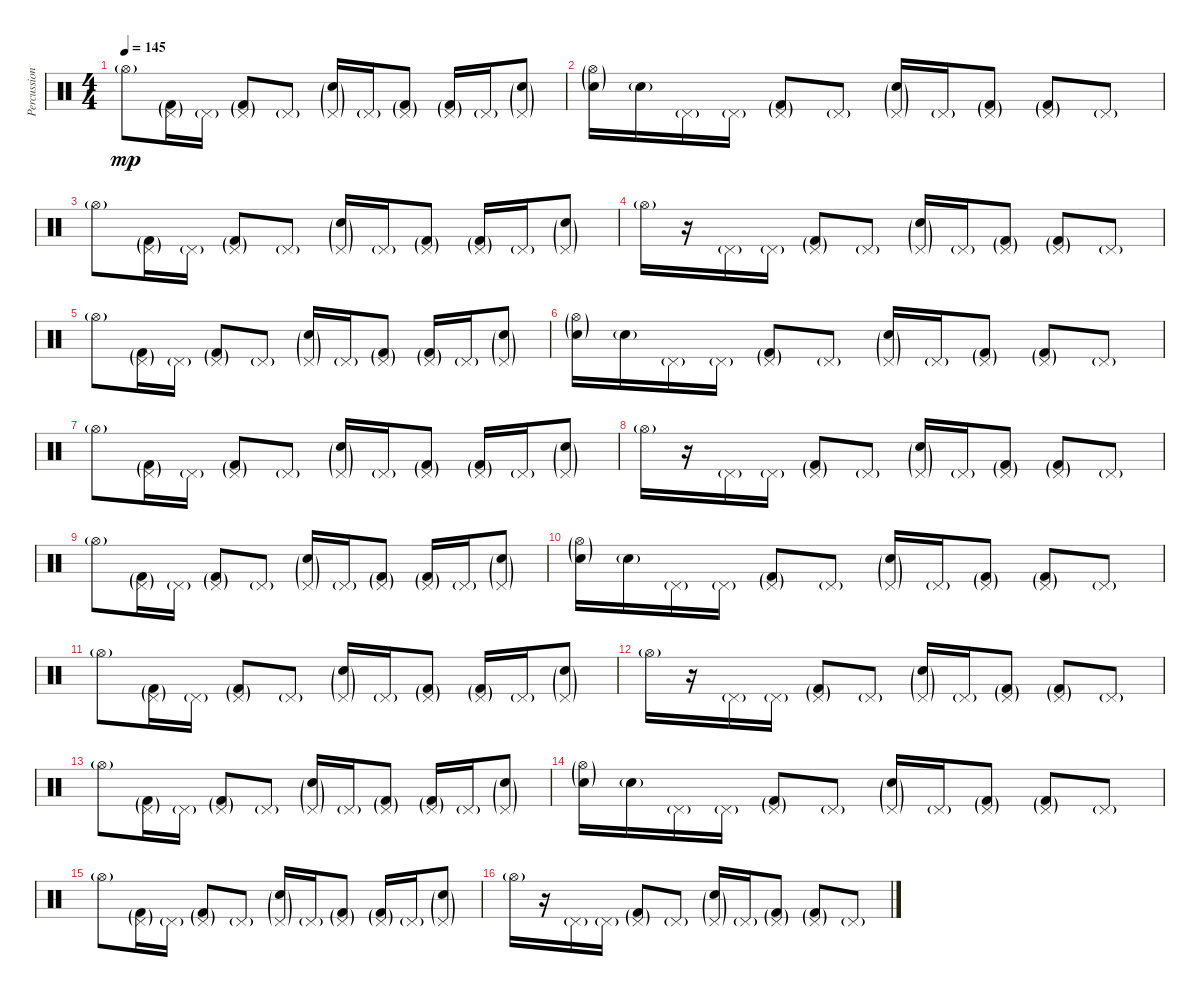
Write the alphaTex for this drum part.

\track ("Percussion" "Percussion") {instrument percussion}
\staff {score}
\articulation defaults
\ts (4 4)
\tempo 145
\clef neutral
\ks c "Hi-Hat (open)"{g}.8{dy mp}
("Pedal Hi-Hat (hit)"{g} "Kick (hit) 2"{g}).16 "Pedal Hi-Hat (hit)"{g}.16 ("Pedal Hi-Hat (hit)"{g} "Kick (hit) 2"{g}).8 "Pedal Hi-Hat (hit)"{g}.8 ("Pedal Hi-Hat (hit)"{g} "Snare (hit) 2"{g}).16 "Pedal Hi-Hat (hit)"{g}.16 ("Pedal Hi-Hat (hit)"{g} "Kick (hit) 2"{g}).8 ("Pedal Hi-Hat (hit)"{g} "Kick (hit) 2"{g}).16 "Pedal Hi-Hat (hit)"{g}.16 ("Pedal Hi-Hat (hit)"{g} "Snare (hit) 2"{g}).8 |
("Hi-Hat (open)"{g} "Snare (hit) 2"{g}).16 "Snare (hit) 2"{g}.16 "Pedal Hi-Hat (hit)"{g}.16 "Pedal Hi-Hat (hit)"{g}.16 ("Pedal Hi-Hat (hit)"{g} "Kick (hit) 2"{g}).8 "Pedal Hi-Hat (hit)"{g}.8 ("Pedal Hi-Hat (hit)"{g} "Snare (hit) 2"{g}).16 "Pedal Hi-Hat (hit)"{g}.16 ("Pedal Hi-Hat (hit)"{g} "Kick (hit) 2"{g}).8 ("Pedal Hi-Hat (hit)"{g} "Kick (hit) 2"{g}).8 "Pedal Hi-Hat (hit)"{g}.8 |
"Hi-Hat (open)"{g}.8 ("Pedal Hi-Hat (hit)"{g} "Kick (hit) 2"{g}).16 "Pedal Hi-Hat (hit)"{g}.16 ("Pedal Hi-Hat (hit)"{g} "Kick (hit) 2"{g}).8 "Pedal Hi-Hat (hit)"{g}.8 ("Pedal Hi-Hat (hit)"{g} "Snare (hit) 2"{g}).16 "Pedal Hi-Hat (hit)"{g}.16 ("Pedal Hi-Hat (hit)"{g} "Kick (hit) 2"{g}).8 ("Pedal Hi-Hat (hit)"{g} "Kick (hit) 2"{g}).16 "Pedal Hi-Hat (hit)"{g}.16 ("Pedal Hi-Hat (hit)"{g} "Snare (hit) 2"{g}).8 |
"Hi-Hat (open)"{g}.16 r.16 "Pedal Hi-Hat (hit)"{g}.16 "Pedal Hi-Hat (hit)"{g}.16 ("Pedal Hi-Hat (hit)"{g} "Kick (hit) 2"{g}).8 "Pedal Hi-Hat (hit)"{g}.8 ("Pedal Hi-Hat (hit)"{g} "Snare (hit) 2"{g}).16 "Pedal Hi-Hat (hit)"{g}.16 ("Pedal Hi-Hat (hit)"{g} "Kick (hit) 2"{g}).8 ("Pedal Hi-Hat (hit)"{g} "Kick (hit) 2"{g}).8 "Pedal Hi-Hat (hit)"{g}.8 |
"Hi-Hat (open)"{g}.8 ("Pedal Hi-Hat (hit)"{g} "Kick (hit) 2"{g}).16 "Pedal Hi-Hat (hit)"{g}.16 ("Pedal Hi-Hat (hit)"{g} "Kick (hit) 2"{g}).8 "Pedal Hi-Hat (hit)"{g}.8 ("Pedal Hi-Hat (hit)"{g} "Snare (hit) 2"{g}).16 "Pedal Hi-Hat (hit)"{g}.16 ("Pedal Hi-Hat (hit)"{g} "Kick (hit) 2"{g}).8 ("Pedal Hi-Hat (hit)"{g} "Kick (hit) 2"{g}).16 "Pedal Hi-Hat (hit)"{g}.16 ("Pedal Hi-Hat (hit)"{g} "Snare (hit) 2"{g}).8 |
("Hi-Hat (open)"{g} "Snare (hit) 2"{g}).16{volume 8} "Snare (hit) 2"{g}.16 "Pedal Hi-Hat (hit)"{g}.16 "Pedal Hi-Hat (hit)"{g}.16 ("Pedal Hi-Hat (hit)"{g} "Kick (hit) 2"{g}).8 "Pedal Hi-Hat (hit)"{g}.8 ("Pedal Hi-Hat (hit)"{g} "Snare (hit) 2"{g}).16 "Pedal Hi-Hat (hit)"{g}.16 ("Pedal Hi-Hat (hit)"{g} "Kick (hit) 2"{g}).8 ("Pedal Hi-Hat (hit)"{g} "Kick (hit) 2"{g}).8 "Pedal Hi-Hat (hit)"{g}.8 |
"Hi-Hat (open)"{g}.8 ("Pedal Hi-Hat (hit)"{g} "Kick (hit) 2"{g}).16 "Pedal Hi-Hat (hit)"{g}.16 ("Pedal Hi-Hat (hit)"{g} "Kick (hit) 2"{g}).8 "Pedal Hi-Hat (hit)"{g}.8 ("Pedal Hi-Hat (hit)"{g} "Snare (hit) 2"{g}).16 "Pedal Hi-Hat (hit)"{g}.16 ("Pedal Hi-Hat (hit)"{g} "Kick (hit) 2"{g}).8 ("Pedal Hi-Hat (hit)"{g} "Kick (hit) 2"{g}).16 "Pedal Hi-Hat (hit)"{g}.16 ("Pedal Hi-Hat (hit)"{g} "Snare (hit) 2"{g}).8 |
"Hi-Hat (open)"{g}.16 r.16 "Pedal Hi-Hat (hit)"{g}.16 "Pedal Hi-Hat (hit)"{g}.16 ("Pedal Hi-Hat (hit)"{g} "Kick (hit) 2"{g}).8 "Pedal Hi-Hat (hit)"{g}.8 ("Pedal Hi-Hat (hit)"{g} "Snare (hit) 2"{g}).16 "Pedal Hi-Hat (hit)"{g}.16 ("Pedal Hi-Hat (hit)"{g} "Kick (hit) 2"{g}).8 ("Pedal Hi-Hat (hit)"{g} "Kick (hit) 2"{g}).8 "Pedal Hi-Hat (hit)"{g}.8 |
"Hi-Hat (open)"{g}.8 ("Pedal Hi-Hat (hit)"{g} "Kick (hit) 2"{g}).16 "Pedal Hi-Hat (hit)"{g}.16 ("Pedal Hi-Hat (hit)"{g} "Kick (hit) 2"{g}).8 "Pedal Hi-Hat (hit)"{g}.8 ("Pedal Hi-Hat (hit)"{g} "Snare (hit) 2"{g}).16 "Pedal Hi-Hat (hit)"{g}.16 ("Pedal Hi-Hat (hit)"{g} "Kick (hit) 2"{g}).8 ("Pedal Hi-Hat (hit)"{g} "Kick (hit) 2"{g}).16 "Pedal Hi-Hat (hit)"{g}.16 ("Pedal Hi-Hat (hit)"{g} "Snare (hit) 2"{g}).8 |
("Hi-Hat (open)"{g} "Snare (hit) 2"{g}).16{volume 6} "Snare (hit) 2"{g}.16 "Pedal Hi-Hat (hit)"{g}.16 "Pedal Hi-Hat (hit)"{g}.16 ("Pedal Hi-Hat (hit)"{g} "Kick (hit) 2"{g}).8 "Pedal Hi-Hat (hit)"{g}.8 ("Pedal Hi-Hat (hit)"{g} "Snare (hit) 2"{g}).16 "Pedal Hi-Hat (hit)"{g}.16 ("Pedal Hi-Hat (hit)"{g} "Kick (hit) 2"{g}).8 ("Pedal Hi-Hat (hit)"{g} "Kick (hit) 2"{g}).8 "Pedal Hi-Hat (hit)"{g}.8 |
"Hi-Hat (open)"{g}.8 ("Pedal Hi-Hat (hit)"{g} "Kick (hit) 2"{g}).16 "Pedal Hi-Hat (hit)"{g}.16 ("Pedal Hi-Hat (hit)"{g} "Kick (hit) 2"{g}).8 "Pedal Hi-Hat (hit)"{g}.8 ("Pedal Hi-Hat (hit)"{g} "Snare (hit) 2"{g}).16 "Pedal Hi-Hat (hit)"{g}.16 ("Pedal Hi-Hat (hit)"{g} "Kick (hit) 2"{g}).8 ("Pedal Hi-Hat (hit)"{g} "Kick (hit) 2"{g}).16 "Pedal Hi-Hat (hit)"{g}.16 ("Pedal Hi-Hat (hit)"{g} "Snare (hit) 2"{g}).8 |
"Hi-Hat (open)"{g}.16 r.16 "Pedal Hi-Hat (hit)"{g}.16 "Pedal Hi-Hat (hit)"{g}.16 ("Pedal Hi-Hat (hit)"{g} "Kick (hit) 2"{g}).8 "Pedal Hi-Hat (hit)"{g}.8 ("Pedal Hi-Hat (hit)"{g} "Snare (hit) 2"{g}).16 "Pedal Hi-Hat (hit)"{g}.16 ("Pedal Hi-Hat (hit)"{g} "Kick (hit) 2"{g}).8 ("Pedal Hi-Hat (hit)"{g} "Kick (hit) 2"{g}).8 "Pedal Hi-Hat (hit)"{g}.8 |
"Hi-Hat (open)"{g}.8 ("Pedal Hi-Hat (hit)"{g} "Kick (hit) 2"{g}).16 "Pedal Hi-Hat (hit)"{g}.16 ("Pedal Hi-Hat (hit)"{g} "Kick (hit) 2"{g}).8 "Pedal Hi-Hat (hit)"{g}.8 ("Pedal Hi-Hat (hit)"{g} "Snare (hit) 2"{g}).16 "Pedal Hi-Hat (hit)"{g}.16 ("Pedal Hi-Hat (hit)"{g} "Kick (hit) 2"{g}).8 ("Pedal Hi-Hat (hit)"{g} "Kick (hit) 2"{g}).16 "Pedal Hi-Hat (hit)"{g}.16 ("Pedal Hi-Hat (hit)"{g} "Snare (hit) 2"{g}).8 |
("Hi-Hat (open)"{g} "Snare (hit) 2"{g}).16{volume 4} "Snare (hit) 2"{g}.16 "Pedal Hi-Hat (hit)"{g}.16 "Pedal Hi-Hat (hit)"{g}.16 ("Pedal Hi-Hat (hit)"{g} "Kick (hit) 2"{g}).8 "Pedal Hi-Hat (hit)"{g}.8 ("Pedal Hi-Hat (hit)"{g} "Snare (hit) 2"{g}).16 "Pedal Hi-Hat (hit)"{g}.16 ("Pedal Hi-Hat (hit)"{g} "Kick (hit) 2"{g}).8 ("Pedal Hi-Hat (hit)"{g} "Kick (hit) 2"{g}).8 "Pedal Hi-Hat (hit)"{g}.8 |
"Hi-Hat (open)"{g}.8 ("Pedal Hi-Hat (hit)"{g} "Kick (hit) 2"{g}).16 "Pedal Hi-Hat (hit)"{g}.16 ("Pedal Hi-Hat (hit)"{g} "Kick (hit) 2"{g}).8 "Pedal Hi-Hat (hit)"{g}.8 ("Pedal Hi-Hat (hit)"{g} "Snare (hit) 2"{g}).16 "Pedal Hi-Hat (hit)"{g}.16 ("Pedal Hi-Hat (hit)"{g} "Kick (hit) 2"{g}).8 ("Pedal Hi-Hat (hit)"{g} "Kick (hit) 2"{g}).16 "Pedal Hi-Hat (hit)"{g}.16 ("Pedal Hi-Hat (hit)"{g} "Snare (hit) 2"{g}).8 |
"Hi-Hat (open)"{g}.16 r.16 "Pedal Hi-Hat (hit)"{g}.16 "Pedal Hi-Hat (hit)"{g}.16 ("Pedal Hi-Hat (hit)"{g} "Kick (hit) 2"{g}).8 "Pedal Hi-Hat (hit)"{g}.8 ("Pedal Hi-Hat (hit)"{g} "Snare (hit) 2"{g}).16 "Pedal Hi-Hat (hit)"{g}.16 ("Pedal Hi-Hat (hit)"{g} "Kick (hit) 2"{g}).8 ("Pedal Hi-Hat (hit)"{g} "Kick (hit) 2"{g}).8 "Pedal Hi-Hat (hit)"{g}.8
